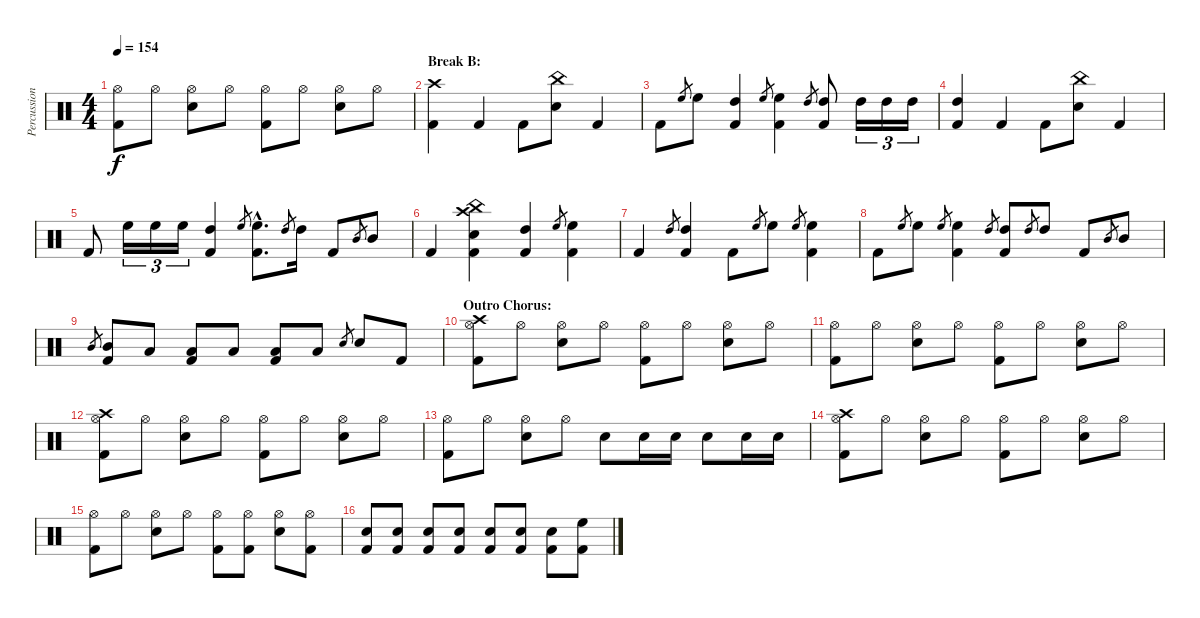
\track ("Percussion" "Percussion") {instrument percussion}
\staff {score}
\articulation defaults
\ts (4 4)
\tempo 154
\clef neutral
\ks c
("Hi-Hat (open)" "Kick (hit) 2").8{dy f} "Hi-Hat (open)".8 ("Hi-Hat (open)" "Snare (hit) 2").8 "Hi-Hat (open)".8 ("Hi-Hat (open)" "Kick (hit) 2").8 "Hi-Hat (open)".8 ("Hi-Hat (open)" "Snare (hit) 2").8 "Hi-Hat (open)".8 |
\section ("" "Break B:")
("Crash high (hit)" "Kick (hit) 2").4 "Kick (hit) 2".4 "Kick (hit) 2".8 ("China (hit)" "Snare (hit) 2").8 "Kick (hit) 2".4 |
"Kick (hit) 2".8 "High Floor Tom (hit)".8{gr} "High Floor Tom (hit)".8 ("High Tom (hit)" "Kick (hit) 2").4 "High Floor Tom (hit)".8{gr} ("High Floor Tom (hit)" "Kick (hit) 2").4 "High Tom (hit)".8{gr} ("High Tom (hit)" "Kick (hit) 2").8 "High Tom (hit)".16{tu (3 2)} "High Tom (hit)".16{tu (3 2)} "High Tom (hit)".16{tu (3 2)} |
("High Tom (hit)" "Kick (hit) 2").4 "Kick (hit) 2".4 "Kick (hit) 2".8 ("China (hit)" "Snare (hit) 2").8 "Kick (hit) 2".4 |
"Kick (hit) 2".8 "High Floor Tom (hit)".16{tu (3 2)} "High Floor Tom (hit)".16{tu (3 2)} "High Floor Tom (hit)".16{tu (3 2)} ("High Tom (hit)" "Kick (hit) 2").4 "High Floor Tom (hit)".8{gr} ("High Floor Tom (hit)"{hac} "Kick (hit) 2"{hac}).8{d} "High Tom (hit)".8{gr} "High Tom (hit)".16 "Kick (hit) 2".8 "Mid Tom (hit)".8{gr} "Mid Tom (hit)".8 |
"Kick (hit) 2".4 ("Crash high (hit)" "China (hit)" "Snare (hit) 2" "Kick (hit) 2").4 ("High Tom (hit)" "Kick (hit) 2").4 "High Floor Tom (hit)".8{gr} ("High Floor Tom (hit)" "Kick (hit) 2").4 |
"Kick (hit) 2".4 "High Tom (hit)".8{gr} ("High Tom (hit)" "Kick (hit) 2").4 "Kick (hit) 2".8 "High Floor Tom (hit)".8{gr} "High Floor Tom (hit)".8 "High Floor Tom (hit)".8{gr} ("High Floor Tom (hit)" "Kick (hit) 2").4 |
"Kick (hit) 2".8 "High Floor Tom (hit)".8{gr} "High Floor Tom (hit)".8 "High Floor Tom (hit)".8{gr} ("High Floor Tom (hit)" "Kick (hit) 2").4 "High Tom (hit)".8{gr} ("High Tom (hit)" "Kick (hit) 2").8 "High Tom (hit)".8{gr} "High Tom (hit)".8 "Kick (hit) 2".8 "Mid Tom (hit)".8{gr} "Mid Tom (hit)".8 |
"Mid Tom (hit)".8{gr} ("Mid Tom (hit)" "Kick (hit) 2").8 "Low Tom (hit)".8 ("Low Tom (hit)" "Kick (hit) 2").8 "Low Tom (hit)".8 ("Low Tom (hit)" "Kick (hit) 2").8 "Low Tom (hit)".8 "Snare (hit) 2".8{gr} "Snare (hit) 2".8 "Kick (hit) 2".8 |
\section ("" "Outro Chorus:")
("Hi-Hat (open)" "Crash high (hit)" "Kick (hit) 2").8 "Hi-Hat (open)".8 ("Hi-Hat (open)" "Snare (hit) 2").8 "Hi-Hat (open)".8 ("Hi-Hat (open)" "Kick (hit) 2").8 "Hi-Hat (open)".8 ("Hi-Hat (open)" "Snare (hit) 2").8 "Hi-Hat (open)".8 |
("Hi-Hat (open)" "Kick (hit) 2").8 "Hi-Hat (open)".8 ("Hi-Hat (open)" "Snare (hit) 2").8 "Hi-Hat (open)".8 ("Hi-Hat (open)" "Kick (hit) 2").8 "Hi-Hat (open)".8 ("Hi-Hat (open)" "Snare (hit) 2").8 "Hi-Hat (open)".8 |
("Hi-Hat (open)" "Crash high (hit)" "Kick (hit) 2").8 "Hi-Hat (open)".8 ("Hi-Hat (open)" "Snare (hit) 2").8 "Hi-Hat (open)".8 ("Hi-Hat (open)" "Kick (hit) 2").8 "Hi-Hat (open)".8 ("Hi-Hat (open)" "Snare (hit) 2").8 "Hi-Hat (open)".8 |
("Hi-Hat (open)" "Kick (hit) 2").8 "Hi-Hat (open)".8 ("Hi-Hat (open)" "Snare (hit) 2").8 "Hi-Hat (open)".8 "Snare (hit) 2".8 "Snare (hit) 2".16 "Snare (hit) 2".16 "Snare (hit) 2".8 "Snare (hit) 2".16 "Snare (hit) 2".16 |
("Hi-Hat (open)" "Crash high (hit)" "Kick (hit) 2").8 "Hi-Hat (open)".8 ("Hi-Hat (open)" "Snare (hit) 2").8 "Hi-Hat (open)".8 ("Hi-Hat (open)" "Kick (hit) 2").8 "Hi-Hat (open)".8 ("Hi-Hat (open)" "Snare (hit) 2").8 "Hi-Hat (open)".8 |
("Hi-Hat (open)" "Kick (hit) 2").8 "Hi-Hat (open)".8 ("Hi-Hat (open)" "Snare (hit) 2").8 "Hi-Hat (open)".8 ("Hi-Hat (open)" "Kick (hit) 2").8 ("Hi-Hat (open)" "Kick (hit) 2").8 ("Hi-Hat (open)" "Snare (hit) 2").8 ("Hi-Hat (open)" "Kick (hit) 2").8 |
("Snare (hit) 2" "Kick (hit) 2").8 ("Snare (hit) 2" "Kick (hit) 2").8 ("Snare (hit) 2" "Kick (hit) 2").8 ("Snare (hit) 2" "Kick (hit) 2").8 ("Snare (hit) 2" "Kick (hit) 2").8 ("Snare (hit) 2" "Kick (hit) 2").8 ("Snare (hit) 2" "Kick (hit) 2").8 ("High Floor Tom (hit)" "Kick (hit) 2").8
